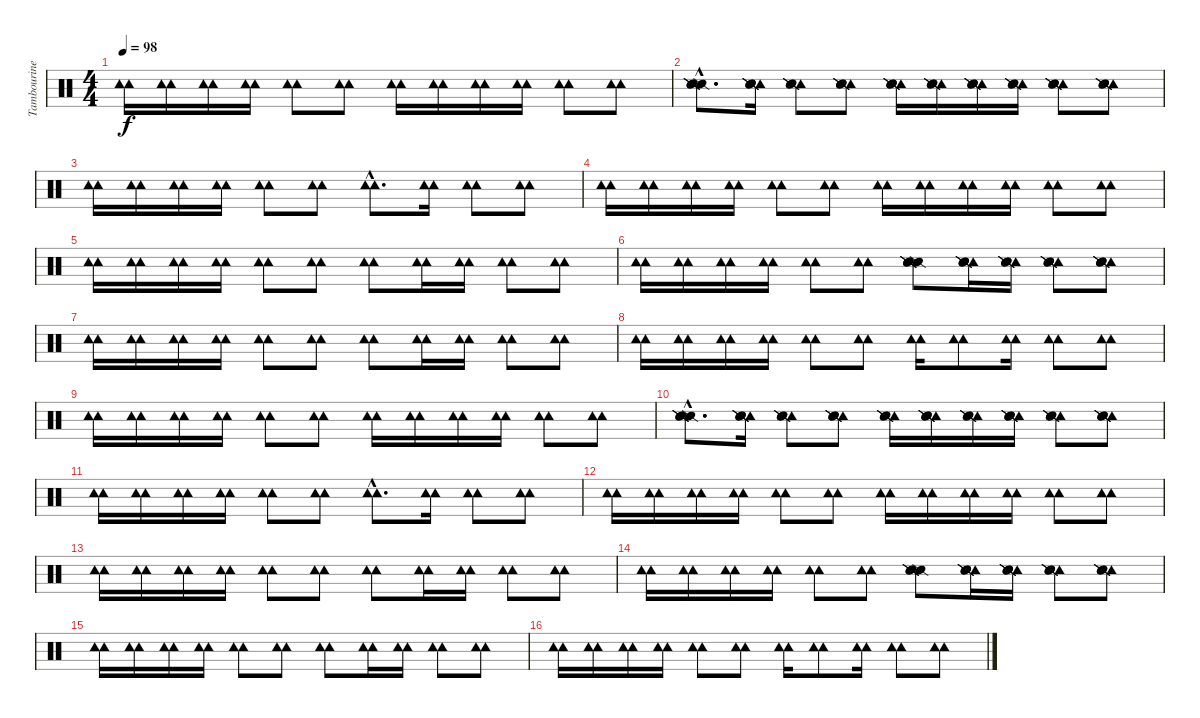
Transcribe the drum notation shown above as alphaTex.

\track ("Tambourine" "Tambourine") {instrument percussion}
\staff {score}
\articulation defaults
\ts (4 4)
\tempo 98
\clef neutral
\ks c
("Tambourine (hit)" "Tambourine (hit)").16{dy f} ("Tambourine (hit)" "Tambourine (hit)").16 ("Tambourine (hit)" "Tambourine (hit)").16 ("Tambourine (hit)" "Tambourine (hit)").16 ("Tambourine (hit)" "Tambourine (hit)").8 ("Tambourine (hit)" "Tambourine (hit)").8 ("Tambourine (hit)" "Tambourine (hit)").16 ("Tambourine (hit)" "Tambourine (hit)").16 ("Tambourine (hit)" "Tambourine (hit)").16 ("Tambourine (hit)" "Tambourine (hit)").16 ("Tambourine (hit)" "Tambourine (hit)").8 ("Tambourine (hit)" "Tambourine (hit)").8 |
("Snare (side stick) 2"{hac} "Snare (side stick) 2"{hac} "Snare (side stick) 2"{hac} "Snare (side stick) 2"{hac}).8{d} ("Tambourine (hit)" "Snare (side stick) 2" "Snare (side stick) 2" "Snare (side stick) 2").16 ("Tambourine (hit)" "Snare (side stick) 2" "Snare (side stick) 2" "Snare (side stick) 2").8 ("Tambourine (hit)" "Snare (side stick) 2" "Snare (side stick) 2" "Snare (side stick) 2").8 ("Tambourine (hit)" "Snare (side stick) 2" "Snare (side stick) 2" "Snare (side stick) 2").16 ("Tambourine (hit)" "Snare (side stick) 2" "Snare (side stick) 2" "Snare (side stick) 2").16 ("Tambourine (hit)" "Snare (side stick) 2" "Snare (side stick) 2" "Snare (side stick) 2").16 ("Tambourine (hit)" "Snare (side stick) 2" "Snare (side stick) 2" "Snare (side stick) 2").16 ("Tambourine (hit)" "Snare (side stick) 2" "Snare (side stick) 2" "Snare (side stick) 2").8 ("Tambourine (hit)" "Snare (side stick) 2" "Snare (side stick) 2" "Snare (side stick) 2").8 |
("Tambourine (hit)" "Tambourine (hit)").16 ("Tambourine (hit)" "Tambourine (hit)").16 ("Tambourine (hit)" "Tambourine (hit)").16 ("Tambourine (hit)" "Tambourine (hit)").16 ("Tambourine (hit)" "Tambourine (hit)").8 ("Tambourine (hit)" "Tambourine (hit)").8 ("Tambourine (hit)"{hac} "Tambourine (hit)"{hac}).8{d} ("Tambourine (hit)" "Tambourine (hit)").16 ("Tambourine (hit)" "Tambourine (hit)").8 ("Tambourine (hit)" "Tambourine (hit)").8 |
("Tambourine (hit)" "Tambourine (hit)").16 ("Tambourine (hit)" "Tambourine (hit)").16 ("Tambourine (hit)" "Tambourine (hit)").16 ("Tambourine (hit)" "Tambourine (hit)").16 ("Tambourine (hit)" "Tambourine (hit)").8 ("Tambourine (hit)" "Tambourine (hit)").8 ("Tambourine (hit)" "Tambourine (hit)").16 ("Tambourine (hit)" "Tambourine (hit)").16 ("Tambourine (hit)" "Tambourine (hit)").16 ("Tambourine (hit)" "Tambourine (hit)").16 ("Tambourine (hit)" "Tambourine (hit)").8 ("Tambourine (hit)" "Tambourine (hit)").8 |
("Tambourine (hit)" "Tambourine (hit)").16 ("Tambourine (hit)" "Tambourine (hit)").16 ("Tambourine (hit)" "Tambourine (hit)").16 ("Tambourine (hit)" "Tambourine (hit)").16 ("Tambourine (hit)" "Tambourine (hit)").8 ("Tambourine (hit)" "Tambourine (hit)").8 ("Tambourine (hit)" "Tambourine (hit)").8 ("Tambourine (hit)" "Tambourine (hit)").16 ("Tambourine (hit)" "Tambourine (hit)").16 ("Tambourine (hit)" "Tambourine (hit)").8 ("Tambourine (hit)" "Tambourine (hit)").8 |
("Tambourine (hit)" "Tambourine (hit)").16 ("Tambourine (hit)" "Tambourine (hit)").16 ("Tambourine (hit)" "Tambourine (hit)").16 ("Tambourine (hit)" "Tambourine (hit)").16 ("Tambourine (hit)" "Tambourine (hit)").8 ("Tambourine (hit)" "Tambourine (hit)").8 ("Snare (side stick) 2" "Snare (side stick) 2" "Snare (side stick) 2" "Snare (side stick) 2").8 ("Tambourine (hit)" "Snare (side stick) 2" "Snare (side stick) 2" "Snare (side stick) 2").16 ("Tambourine (hit)" "Snare (side stick) 2" "Snare (side stick) 2" "Snare (side stick) 2").16 ("Tambourine (hit)" "Snare (side stick) 2" "Snare (side stick) 2" "Snare (side stick) 2").8 ("Tambourine (hit)" "Snare (side stick) 2" "Snare (side stick) 2" "Snare (side stick) 2").8 |
("Tambourine (hit)" "Tambourine (hit)").16 ("Tambourine (hit)" "Tambourine (hit)").16 ("Tambourine (hit)" "Tambourine (hit)").16 ("Tambourine (hit)" "Tambourine (hit)").16 ("Tambourine (hit)" "Tambourine (hit)").8 ("Tambourine (hit)" "Tambourine (hit)").8 ("Tambourine (hit)" "Tambourine (hit)").8 ("Tambourine (hit)" "Tambourine (hit)").16 ("Tambourine (hit)" "Tambourine (hit)").16 ("Tambourine (hit)" "Tambourine (hit)").8 ("Tambourine (hit)" "Tambourine (hit)").8 |
("Tambourine (hit)" "Tambourine (hit)").16 ("Tambourine (hit)" "Tambourine (hit)").16 ("Tambourine (hit)" "Tambourine (hit)").16 ("Tambourine (hit)" "Tambourine (hit)").16 ("Tambourine (hit)" "Tambourine (hit)").8 ("Tambourine (hit)" "Tambourine (hit)").8 ("Tambourine (hit)" "Tambourine (hit)").16 ("Tambourine (hit)" "Tambourine (hit)").8 ("Tambourine (hit)" "Tambourine (hit)").16 ("Tambourine (hit)" "Tambourine (hit)").8 ("Tambourine (hit)" "Tambourine (hit)").8 |
("Tambourine (hit)" "Tambourine (hit)").16 ("Tambourine (hit)" "Tambourine (hit)").16 ("Tambourine (hit)" "Tambourine (hit)").16 ("Tambourine (hit)" "Tambourine (hit)").16 ("Tambourine (hit)" "Tambourine (hit)").8 ("Tambourine (hit)" "Tambourine (hit)").8 ("Tambourine (hit)" "Tambourine (hit)").16 ("Tambourine (hit)" "Tambourine (hit)").16 ("Tambourine (hit)" "Tambourine (hit)").16 ("Tambourine (hit)" "Tambourine (hit)").16 ("Tambourine (hit)" "Tambourine (hit)").8 ("Tambourine (hit)" "Tambourine (hit)").8 |
("Snare (side stick) 2"{hac} "Snare (side stick) 2"{hac} "Snare (side stick) 2"{hac} "Snare (side stick) 2"{hac}).8{d} ("Tambourine (hit)" "Snare (side stick) 2" "Snare (side stick) 2" "Snare (side stick) 2").16 ("Tambourine (hit)" "Snare (side stick) 2" "Snare (side stick) 2" "Snare (side stick) 2").8 ("Tambourine (hit)" "Snare (side stick) 2" "Snare (side stick) 2" "Snare (side stick) 2").8 ("Tambourine (hit)" "Snare (side stick) 2" "Snare (side stick) 2" "Snare (side stick) 2").16 ("Tambourine (hit)" "Snare (side stick) 2" "Snare (side stick) 2" "Snare (side stick) 2").16 ("Tambourine (hit)" "Snare (side stick) 2" "Snare (side stick) 2" "Snare (side stick) 2").16 ("Tambourine (hit)" "Snare (side stick) 2" "Snare (side stick) 2" "Snare (side stick) 2").16 ("Tambourine (hit)" "Snare (side stick) 2" "Snare (side stick) 2" "Snare (side stick) 2").8 ("Tambourine (hit)" "Snare (side stick) 2" "Snare (side stick) 2" "Snare (side stick) 2").8 |
("Tambourine (hit)" "Tambourine (hit)").16 ("Tambourine (hit)" "Tambourine (hit)").16 ("Tambourine (hit)" "Tambourine (hit)").16 ("Tambourine (hit)" "Tambourine (hit)").16 ("Tambourine (hit)" "Tambourine (hit)").8 ("Tambourine (hit)" "Tambourine (hit)").8 ("Tambourine (hit)"{hac} "Tambourine (hit)"{hac}).8{d} ("Tambourine (hit)" "Tambourine (hit)").16 ("Tambourine (hit)" "Tambourine (hit)").8 ("Tambourine (hit)" "Tambourine (hit)").8 |
("Tambourine (hit)" "Tambourine (hit)").16 ("Tambourine (hit)" "Tambourine (hit)").16 ("Tambourine (hit)" "Tambourine (hit)").16 ("Tambourine (hit)" "Tambourine (hit)").16 ("Tambourine (hit)" "Tambourine (hit)").8 ("Tambourine (hit)" "Tambourine (hit)").8 ("Tambourine (hit)" "Tambourine (hit)").16 ("Tambourine (hit)" "Tambourine (hit)").16 ("Tambourine (hit)" "Tambourine (hit)").16 ("Tambourine (hit)" "Tambourine (hit)").16 ("Tambourine (hit)" "Tambourine (hit)").8 ("Tambourine (hit)" "Tambourine (hit)").8 |
("Tambourine (hit)" "Tambourine (hit)").16 ("Tambourine (hit)" "Tambourine (hit)").16 ("Tambourine (hit)" "Tambourine (hit)").16 ("Tambourine (hit)" "Tambourine (hit)").16 ("Tambourine (hit)" "Tambourine (hit)").8 ("Tambourine (hit)" "Tambourine (hit)").8 ("Tambourine (hit)" "Tambourine (hit)").8 ("Tambourine (hit)" "Tambourine (hit)").16 ("Tambourine (hit)" "Tambourine (hit)").16 ("Tambourine (hit)" "Tambourine (hit)").8 ("Tambourine (hit)" "Tambourine (hit)").8 |
("Tambourine (hit)" "Tambourine (hit)").16 ("Tambourine (hit)" "Tambourine (hit)").16 ("Tambourine (hit)" "Tambourine (hit)").16 ("Tambourine (hit)" "Tambourine (hit)").16 ("Tambourine (hit)" "Tambourine (hit)").8 ("Tambourine (hit)" "Tambourine (hit)").8 ("Snare (side stick) 2" "Snare (side stick) 2" "Snare (side stick) 2" "Snare (side stick) 2").8 ("Tambourine (hit)" "Snare (side stick) 2" "Snare (side stick) 2" "Snare (side stick) 2").16 ("Tambourine (hit)" "Snare (side stick) 2" "Snare (side stick) 2" "Snare (side stick) 2").16 ("Tambourine (hit)" "Snare (side stick) 2" "Snare (side stick) 2" "Snare (side stick) 2").8 ("Tambourine (hit)" "Snare (side stick) 2" "Snare (side stick) 2" "Snare (side stick) 2").8 |
("Tambourine (hit)" "Tambourine (hit)").16 ("Tambourine (hit)" "Tambourine (hit)").16 ("Tambourine (hit)" "Tambourine (hit)").16 ("Tambourine (hit)" "Tambourine (hit)").16 ("Tambourine (hit)" "Tambourine (hit)").8 ("Tambourine (hit)" "Tambourine (hit)").8 ("Tambourine (hit)" "Tambourine (hit)").8 ("Tambourine (hit)" "Tambourine (hit)").16 ("Tambourine (hit)" "Tambourine (hit)").16 ("Tambourine (hit)" "Tambourine (hit)").8 ("Tambourine (hit)" "Tambourine (hit)").8 |
("Tambourine (hit)" "Tambourine (hit)").16 ("Tambourine (hit)" "Tambourine (hit)").16 ("Tambourine (hit)" "Tambourine (hit)").16 ("Tambourine (hit)" "Tambourine (hit)").16 ("Tambourine (hit)" "Tambourine (hit)").8 ("Tambourine (hit)" "Tambourine (hit)").8 ("Tambourine (hit)" "Tambourine (hit)").16 ("Tambourine (hit)" "Tambourine (hit)").8 ("Tambourine (hit)" "Tambourine (hit)").16 ("Tambourine (hit)" "Tambourine (hit)").8 ("Tambourine (hit)" "Tambourine (hit)").8
